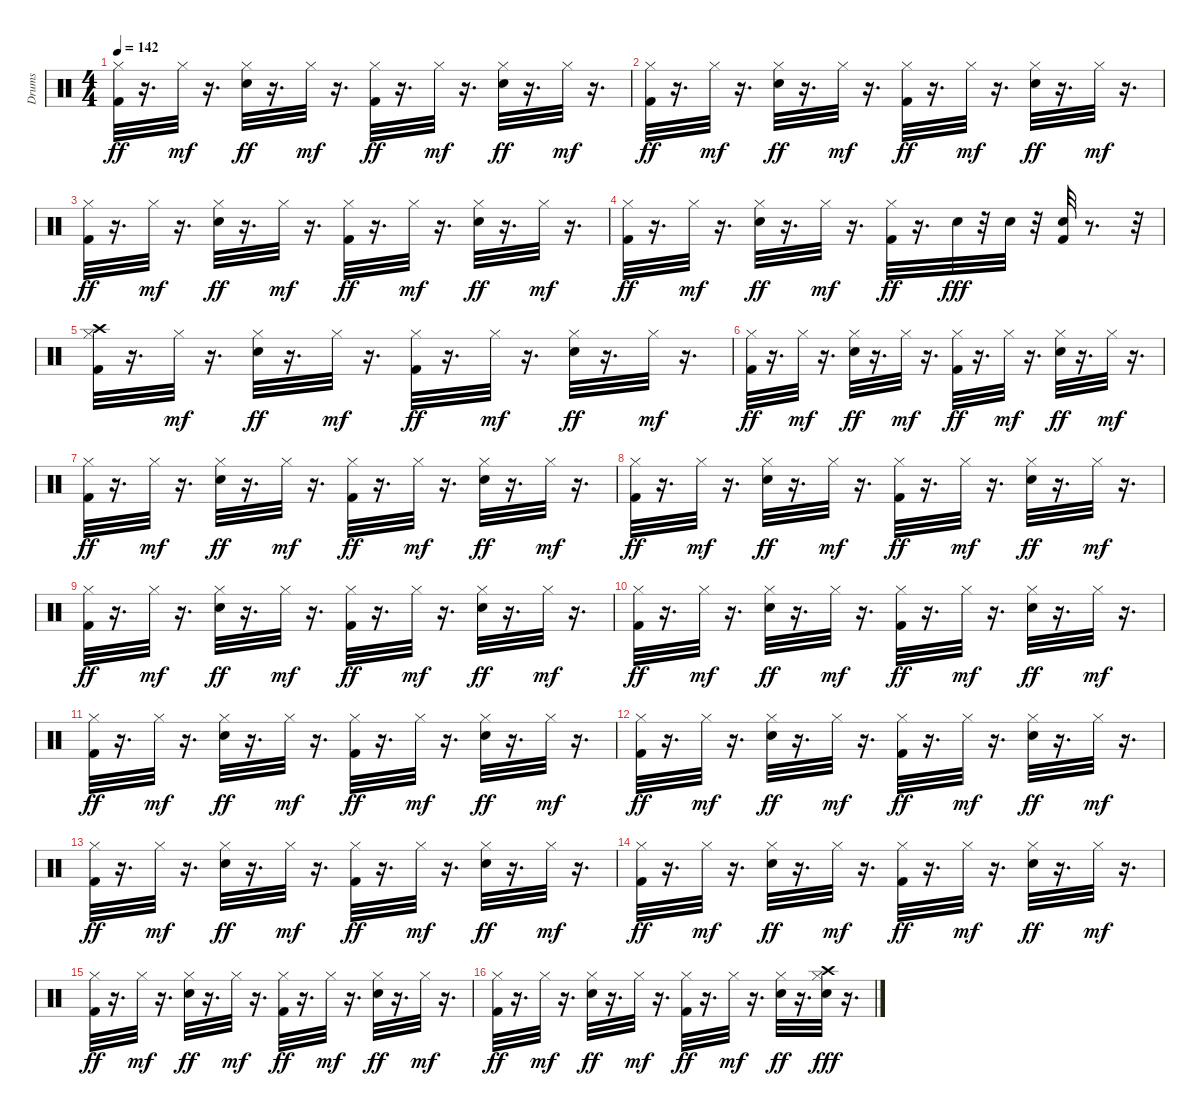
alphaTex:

\track ("Drums" "Drums") {instrument percussion}
\staff {score}
\articulation defaults
\ts (4 4)
\tempo 142
\clef neutral
\ks c
("Kick (hit) 2" "Hi-Hat (closed)").32{dy ff} r.16{d} "Hi-Hat (closed)".32{dy mf} r.16{d} ("Snare (hit) 2" "Hi-Hat (closed)").32{dy ff} r.16{d} "Hi-Hat (closed)".32{dy mf} r.16{d} ("Kick (hit) 2" "Hi-Hat (closed)").32{dy ff} r.16{d} "Hi-Hat (closed)".32{dy mf} r.16{d} ("Snare (hit) 2" "Hi-Hat (closed)").32{dy ff} r.16{d} "Hi-Hat (closed)".32{dy mf} r.16{d} |
("Kick (hit) 2" "Hi-Hat (closed)").32{dy ff} r.16{d} "Hi-Hat (closed)".32{dy mf} r.16{d} ("Snare (hit) 2" "Hi-Hat (closed)").32{dy ff} r.16{d} "Hi-Hat (closed)".32{dy mf} r.16{d} ("Kick (hit) 2" "Hi-Hat (closed)").32{dy ff} r.16{d} "Hi-Hat (closed)".32{dy mf} r.16{d} ("Snare (hit) 2" "Hi-Hat (closed)").32{dy ff} r.16{d} "Hi-Hat (closed)".32{dy mf} r.16{d} |
("Kick (hit) 2" "Hi-Hat (closed)").32{dy ff} r.16{d} "Hi-Hat (closed)".32{dy mf} r.16{d} ("Snare (hit) 2" "Hi-Hat (closed)").32{dy ff} r.16{d} "Hi-Hat (closed)".32{dy mf} r.16{d} ("Kick (hit) 2" "Hi-Hat (closed)").32{dy ff} r.16{d} "Hi-Hat (closed)".32{dy mf} r.16{d} ("Snare (hit) 2" "Hi-Hat (closed)").32{dy ff} r.16{d} "Hi-Hat (closed)".32{dy mf} r.16{d} |
("Kick (hit) 2" "Hi-Hat (closed)").32{dy ff} r.16{d} "Hi-Hat (closed)".32{dy mf} r.16{d} ("Snare (hit) 2" "Hi-Hat (closed)").32{dy ff} r.16{d} "Hi-Hat (closed)".32{dy mf} r.16{d} ("Kick (hit) 2" "Hi-Hat (closed)").32{dy ff} r.16{d} "Snare (hit) 2".32{dy fff} r.32 "Snare (hit) 2".32 r.32 ("Kick (hit) 2" "Snare (hit) 2").32 r.8{d} r.32 |
("Kick (hit) 2" "Hi-Hat (closed)" "Crash high (hit)").32 r.16{d} "Hi-Hat (closed)".32{dy mf} r.16{d} ("Snare (hit) 2" "Hi-Hat (closed)").32{dy ff} r.16{d} "Hi-Hat (closed)".32{dy mf} r.16{d} ("Kick (hit) 2" "Hi-Hat (closed)").32{dy ff} r.16{d} "Hi-Hat (closed)".32{dy mf} r.16{d} ("Snare (hit) 2" "Hi-Hat (closed)").32{dy ff} r.16{d} "Hi-Hat (closed)".32{dy mf} r.16{d} |
("Kick (hit) 2" "Hi-Hat (closed)").32{dy ff} r.16{d} "Hi-Hat (closed)".32{dy mf} r.16{d} ("Snare (hit) 2" "Hi-Hat (closed)").32{dy ff} r.16{d} "Hi-Hat (closed)".32{dy mf} r.16{d} ("Kick (hit) 2" "Hi-Hat (closed)").32{dy ff} r.16{d} "Hi-Hat (closed)".32{dy mf} r.16{d} ("Snare (hit) 2" "Hi-Hat (closed)").32{dy ff} r.16{d} "Hi-Hat (closed)".32{dy mf} r.16{d} |
("Kick (hit) 2" "Hi-Hat (closed)").32{dy ff} r.16{d} "Hi-Hat (closed)".32{dy mf} r.16{d} ("Snare (hit) 2" "Hi-Hat (closed)").32{dy ff} r.16{d} "Hi-Hat (closed)".32{dy mf} r.16{d} ("Kick (hit) 2" "Hi-Hat (closed)").32{dy ff} r.16{d} "Hi-Hat (closed)".32{dy mf} r.16{d} ("Snare (hit) 2" "Hi-Hat (closed)").32{dy ff} r.16{d} "Hi-Hat (closed)".32{dy mf} r.16{d} |
("Kick (hit) 2" "Hi-Hat (closed)").32{dy ff} r.16{d} "Hi-Hat (closed)".32{dy mf} r.16{d} ("Snare (hit) 2" "Hi-Hat (closed)").32{dy ff} r.16{d} "Hi-Hat (closed)".32{dy mf} r.16{d} ("Kick (hit) 2" "Hi-Hat (closed)").32{dy ff} r.16{d} "Hi-Hat (closed)".32{dy mf} r.16{d} ("Snare (hit) 2" "Hi-Hat (closed)").32{dy ff} r.16{d} "Hi-Hat (closed)".32{dy mf} r.16{d} |
("Kick (hit) 2" "Hi-Hat (closed)").32{dy ff} r.16{d} "Hi-Hat (closed)".32{dy mf} r.16{d} ("Snare (hit) 2" "Hi-Hat (closed)").32{dy ff} r.16{d} "Hi-Hat (closed)".32{dy mf} r.16{d} ("Kick (hit) 2" "Hi-Hat (closed)").32{dy ff} r.16{d} "Hi-Hat (closed)".32{dy mf} r.16{d} ("Snare (hit) 2" "Hi-Hat (closed)").32{dy ff} r.16{d} "Hi-Hat (closed)".32{dy mf} r.16{d} |
("Kick (hit) 2" "Hi-Hat (closed)").32{dy ff} r.16{d} "Hi-Hat (closed)".32{dy mf} r.16{d} ("Snare (hit) 2" "Hi-Hat (closed)").32{dy ff} r.16{d} "Hi-Hat (closed)".32{dy mf} r.16{d} ("Kick (hit) 2" "Hi-Hat (closed)").32{dy ff} r.16{d} "Hi-Hat (closed)".32{dy mf} r.16{d} ("Snare (hit) 2" "Hi-Hat (closed)").32{dy ff} r.16{d} "Hi-Hat (closed)".32{dy mf} r.16{d} |
("Kick (hit) 2" "Hi-Hat (closed)").32{dy ff} r.16{d} "Hi-Hat (closed)".32{dy mf} r.16{d} ("Snare (hit) 2" "Hi-Hat (closed)").32{dy ff} r.16{d} "Hi-Hat (closed)".32{dy mf} r.16{d} ("Kick (hit) 2" "Hi-Hat (closed)").32{dy ff} r.16{d} "Hi-Hat (closed)".32{dy mf} r.16{d} ("Snare (hit) 2" "Hi-Hat (closed)").32{dy ff} r.16{d} "Hi-Hat (closed)".32{dy mf} r.16{d} |
("Kick (hit) 2" "Hi-Hat (closed)").32{dy ff} r.16{d} "Hi-Hat (closed)".32{dy mf} r.16{d} ("Snare (hit) 2" "Hi-Hat (closed)").32{dy ff} r.16{d} "Hi-Hat (closed)".32{dy mf} r.16{d} ("Kick (hit) 2" "Hi-Hat (closed)").32{dy ff} r.16{d} "Hi-Hat (closed)".32{dy mf} r.16{d} ("Snare (hit) 2" "Hi-Hat (closed)").32{dy ff} r.16{d} "Hi-Hat (closed)".32{dy mf} r.16{d} |
("Kick (hit) 2" "Hi-Hat (closed)").32{dy ff} r.16{d} "Hi-Hat (closed)".32{dy mf} r.16{d} ("Snare (hit) 2" "Hi-Hat (closed)").32{dy ff} r.16{d} "Hi-Hat (closed)".32{dy mf} r.16{d} ("Kick (hit) 2" "Hi-Hat (closed)").32{dy ff} r.16{d} "Hi-Hat (closed)".32{dy mf} r.16{d} ("Snare (hit) 2" "Hi-Hat (closed)").32{dy ff} r.16{d} "Hi-Hat (closed)".32{dy mf} r.16{d} |
("Kick (hit) 2" "Hi-Hat (closed)").32{dy ff} r.16{d} "Hi-Hat (closed)".32{dy mf} r.16{d} ("Snare (hit) 2" "Hi-Hat (closed)").32{dy ff} r.16{d} "Hi-Hat (closed)".32{dy mf} r.16{d} ("Kick (hit) 2" "Hi-Hat (closed)").32{dy ff} r.16{d} "Hi-Hat (closed)".32{dy mf} r.16{d} ("Snare (hit) 2" "Hi-Hat (closed)").32{dy ff} r.16{d} "Hi-Hat (closed)".32{dy mf} r.16{d} |
("Kick (hit) 2" "Hi-Hat (closed)").32{dy ff} r.16{d} "Hi-Hat (closed)".32{dy mf} r.16{d} ("Snare (hit) 2" "Hi-Hat (closed)").32{dy ff} r.16{d} "Hi-Hat (closed)".32{dy mf} r.16{d} ("Kick (hit) 2" "Hi-Hat (closed)").32{dy ff} r.16{d} "Hi-Hat (closed)".32{dy mf} r.16{d} ("Snare (hit) 2" "Hi-Hat (closed)").32{dy ff} r.16{d} "Hi-Hat (closed)".32{dy mf} r.16{d} |
("Kick (hit) 2" "Hi-Hat (closed)").32{dy ff} r.16{d} "Hi-Hat (closed)".32{dy mf} r.16{d} ("Snare (hit) 2" "Hi-Hat (closed)").32{dy ff} r.16{d} "Hi-Hat (closed)".32{dy mf} r.16{d} ("Kick (hit) 2" "Hi-Hat (closed)").32{dy ff} r.16{d} "Hi-Hat (closed)".32{dy mf} r.16{d} ("Snare (hit) 2" "Hi-Hat (closed)").32{dy ff} r.16{d} ("Snare (hit) 2" "Hi-Hat (closed)" "Crash high (hit)").32{dy fff} r.16{d}
